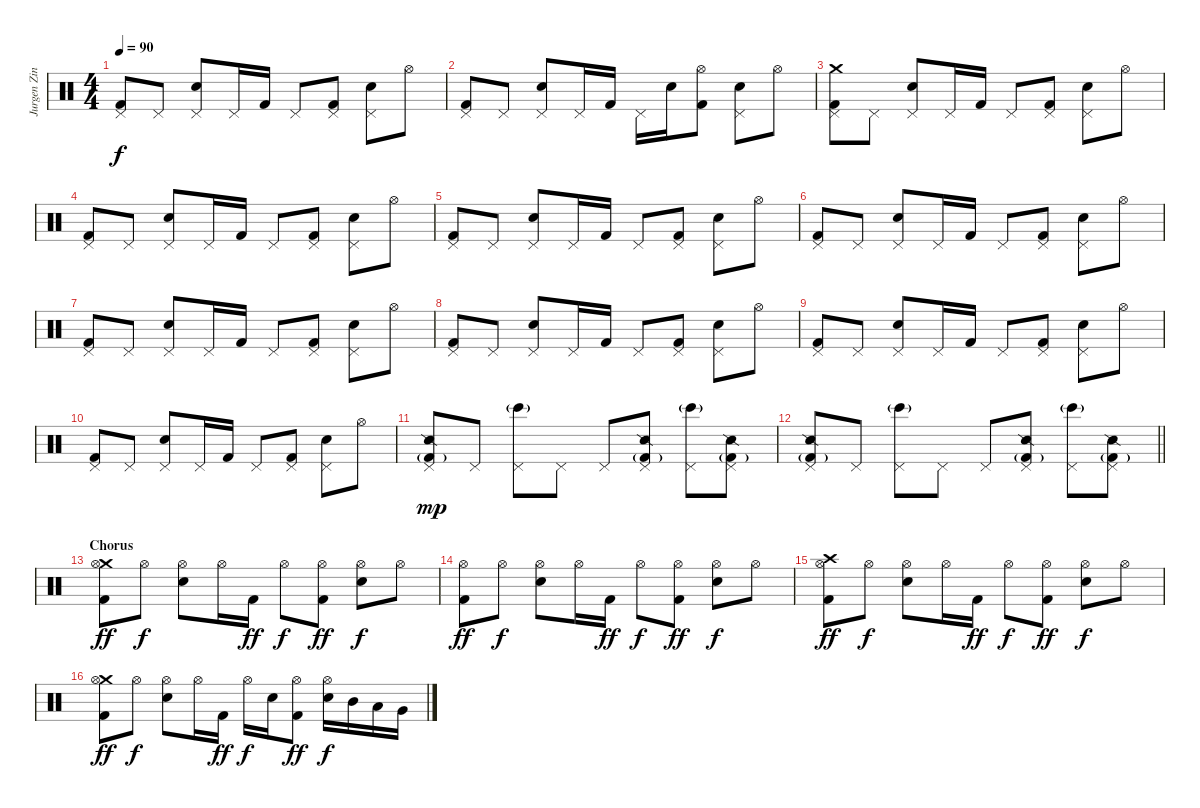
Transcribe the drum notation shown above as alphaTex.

\track ("Jurgen Zing" "Jurgen Zin") {instrument percussion}
\staff {score}
\articulation defaults
\ts (4 4)
\tempo 90
\clef neutral
\ks c
("Pedal Hi-Hat (hit)" "Kick (hit) 2").8{dy f} "Pedal Hi-Hat (hit)".8 ("Pedal Hi-Hat (hit)" "Electric Snare (hit)").8 "Pedal Hi-Hat (hit)".16 "Kick (hit) 2".16 "Pedal Hi-Hat (hit)".8 ("Pedal Hi-Hat (hit)" "Kick (hit) 2").8 ("Pedal Hi-Hat (hit)" "Electric Snare (hit)").8 "Hi-Hat (open)".8 |
("Pedal Hi-Hat (hit)" "Kick (hit) 2").8 "Pedal Hi-Hat (hit)".8 ("Pedal Hi-Hat (hit)" "Electric Snare (hit)").8 "Pedal Hi-Hat (hit)".16 "Kick (hit) 2".16 "Pedal Hi-Hat (hit)".16 "Electric Snare (hit)".16 ("Hi-Hat (open)" "Kick (hit) 2").8 ("Pedal Hi-Hat (hit)" "Electric Snare (hit)").8 "Hi-Hat (open)".8 |
("Crash medium (hit)" "Pedal Hi-Hat (hit)" "Kick (hit) 2").8 "Pedal Hi-Hat (hit)".8 ("Pedal Hi-Hat (hit)" "Electric Snare (hit)").8 "Pedal Hi-Hat (hit)".16 "Kick (hit) 2".16 "Pedal Hi-Hat (hit)".8 ("Pedal Hi-Hat (hit)" "Kick (hit) 2").8 ("Pedal Hi-Hat (hit)" "Electric Snare (hit)").8 "Hi-Hat (open)".8 |
("Pedal Hi-Hat (hit)" "Kick (hit) 2").8 "Pedal Hi-Hat (hit)".8 ("Pedal Hi-Hat (hit)" "Electric Snare (hit)").8 "Pedal Hi-Hat (hit)".16 "Kick (hit) 2".16 "Pedal Hi-Hat (hit)".8 ("Pedal Hi-Hat (hit)" "Kick (hit) 2").8 ("Pedal Hi-Hat (hit)" "Electric Snare (hit)").8 "Hi-Hat (open)".8 |
("Pedal Hi-Hat (hit)" "Kick (hit) 2").8 "Pedal Hi-Hat (hit)".8 ("Pedal Hi-Hat (hit)" "Electric Snare (hit)").8 "Pedal Hi-Hat (hit)".16 "Kick (hit) 2".16 "Pedal Hi-Hat (hit)".8 ("Pedal Hi-Hat (hit)" "Kick (hit) 2").8 ("Pedal Hi-Hat (hit)" "Electric Snare (hit)").8 "Hi-Hat (open)".8 |
("Pedal Hi-Hat (hit)" "Kick (hit) 2").8 "Pedal Hi-Hat (hit)".8 ("Pedal Hi-Hat (hit)" "Electric Snare (hit)").8 "Pedal Hi-Hat (hit)".16 "Kick (hit) 2".16 "Pedal Hi-Hat (hit)".8 ("Pedal Hi-Hat (hit)" "Kick (hit) 2").8 ("Pedal Hi-Hat (hit)" "Electric Snare (hit)").8 "Hi-Hat (open)".8 |
("Pedal Hi-Hat (hit)" "Kick (hit) 2").8 "Pedal Hi-Hat (hit)".8 ("Pedal Hi-Hat (hit)" "Electric Snare (hit)").8 "Pedal Hi-Hat (hit)".16 "Kick (hit) 2".16 "Pedal Hi-Hat (hit)".8 ("Pedal Hi-Hat (hit)" "Kick (hit) 2").8 ("Pedal Hi-Hat (hit)" "Electric Snare (hit)").8 "Hi-Hat (open)".8 |
("Pedal Hi-Hat (hit)" "Kick (hit) 2").8 "Pedal Hi-Hat (hit)".8 ("Pedal Hi-Hat (hit)" "Electric Snare (hit)").8 "Pedal Hi-Hat (hit)".16 "Kick (hit) 2".16 "Pedal Hi-Hat (hit)".8 ("Pedal Hi-Hat (hit)" "Kick (hit) 2").8 ("Pedal Hi-Hat (hit)" "Electric Snare (hit)").8 "Hi-Hat (open)".8 |
("Pedal Hi-Hat (hit)" "Kick (hit) 2").8 "Pedal Hi-Hat (hit)".8 ("Pedal Hi-Hat (hit)" "Electric Snare (hit)").8 "Pedal Hi-Hat (hit)".16 "Kick (hit) 2".16 "Pedal Hi-Hat (hit)".8 ("Pedal Hi-Hat (hit)" "Kick (hit) 2").8 ("Pedal Hi-Hat (hit)" "Electric Snare (hit)").8 "Hi-Hat (open)".8 |
("Pedal Hi-Hat (hit)" "Kick (hit) 2").8 "Pedal Hi-Hat (hit)".8 ("Pedal Hi-Hat (hit)" "Electric Snare (hit)").8 "Pedal Hi-Hat (hit)".16 "Kick (hit) 2".16 "Pedal Hi-Hat (hit)".8 ("Pedal Hi-Hat (hit)" "Kick (hit) 2").8 ("Pedal Hi-Hat (hit)" "Electric Snare (hit)").8 "Hi-Hat (open)".8 |
("Pedal Hi-Hat (hit)" "Snare (side stick) 2" "Kick (hit) 2"{g}).8{dy mp} "Pedal Hi-Hat (hit)".8 ("Pedal Hi-Hat (hit)" "Bongo High (hit)"{g}).8 "Pedal Hi-Hat (hit)".8 "Pedal Hi-Hat (hit)".8 ("Pedal Hi-Hat (hit)" "Snare (side stick) 2" "Kick (hit) 2"{g}).8 ("Pedal Hi-Hat (hit)" "Bongo High (hit)"{g}).8 ("Pedal Hi-Hat (hit)" "Snare (side stick) 2" "Kick (hit) 2"{g}).8 |
\barLineRight lightlight
("Pedal Hi-Hat (hit)" "Snare (side stick) 2" "Kick (hit) 2"{g}).8 "Pedal Hi-Hat (hit)".8 ("Pedal Hi-Hat (hit)" "Bongo High (hit)"{g}).8 "Pedal Hi-Hat (hit)".8 "Pedal Hi-Hat (hit)".8 ("Pedal Hi-Hat (hit)" "Snare (side stick) 2" "Kick (hit) 2"{g}).8 ("Pedal Hi-Hat (hit)" "Bongo High (hit)"{g}).8 ("Pedal Hi-Hat (hit)" "Snare (side stick) 2" "Kick (hit) 2"{g}).8 |
\section ("" "Chorus")
("Crash medium (hit)" "Hi-Hat (open)" "Kick (hit) 2").8{dy ff} "Hi-Hat (open)".8{dy f} ("Hi-Hat (open)" "Electric Snare (hit)").8 "Hi-Hat (open)".16 "Kick (hit) 2".16{dy ff} "Hi-Hat (open)".8{dy f} ("Hi-Hat (open)" "Kick (hit) 2").8{dy ff} ("Hi-Hat (open)" "Electric Snare (hit)").8{dy f} "Hi-Hat (open)".8 |
("Hi-Hat (open)" "Kick (hit) 2").8{dy ff} "Hi-Hat (open)".8{dy f} ("Hi-Hat (open)" "Electric Snare (hit)").8 "Hi-Hat (open)".16 "Kick (hit) 2".16{dy ff} "Hi-Hat (open)".8{dy f} ("Hi-Hat (open)" "Kick (hit) 2").8{dy ff} ("Hi-Hat (open)" "Electric Snare (hit)").8{dy f} "Hi-Hat (open)".8 |
("Crash high (hit)" "Hi-Hat (open)" "Kick (hit) 2").8{dy ff} "Hi-Hat (open)".8{dy f} ("Hi-Hat (open)" "Electric Snare (hit)").8 "Hi-Hat (open)".16 "Kick (hit) 2".16{dy ff} "Hi-Hat (open)".8{dy f} ("Hi-Hat (open)" "Kick (hit) 2").8{dy ff} ("Hi-Hat (open)" "Electric Snare (hit)").8{dy f} "Hi-Hat (open)".8 |
("Crash medium (hit)" "Hi-Hat (open)" "Kick (hit) 2").8{dy ff} "Hi-Hat (open)".8{dy f} ("Hi-Hat (open)" "Electric Snare (hit)").8 "Hi-Hat (open)".16 "Kick (hit) 2".16{dy ff} "Hi-Hat (open)".16{dy f} "Electric Snare (hit)".16 ("Hi-Hat (open)" "Kick (hit) 2").8{dy ff} ("Hi-Hat (open)" "Electric Snare (hit)").16{dy f} "Mid Tom (hit)".16 "Low Tom (hit)".16 "Very Low Tom (hit)".16
